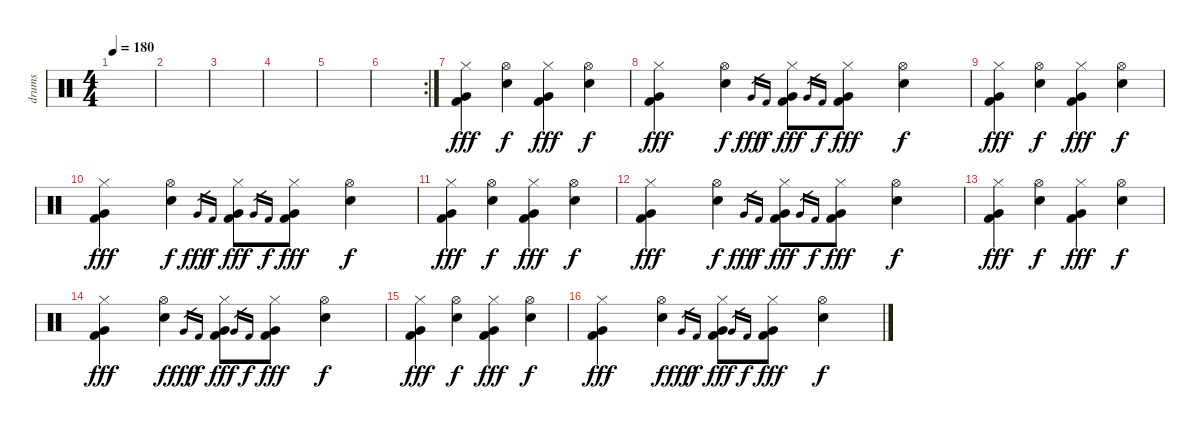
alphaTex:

\track ("drums" "drums") {instrument percussion}
\staff {score}
\articulation defaults
\ts (4 4)
\tempo 180
\clef neutral
\ks c
|
|
|
|
|
\rc 2
|
("Hi-Hat (closed)" "Very Low Tom (hit)" "Kick (hit) 2").4{dy fff} ("Hi-Hat (open)" "Electric Snare (hit)").4{dy f} ("Hi-Hat (closed)" "Very Low Tom (hit)" "Kick (hit) 2").4{dy fff} ("Hi-Hat (open)" "Electric Snare (hit)").4{dy f} |
("Hi-Hat (closed)" "Very Low Tom (hit)" "Kick (hit) 2").4{dy fff} ("Hi-Hat (open)" "Electric Snare (hit)").4{dy f} "Very Low Tom (hit)".16{gr dy fff} "Kick (hit) 2".16{gr dy f} ("Hi-Hat (closed)" "Very Low Tom (hit)" "Kick (hit) 2").8{dy fff} "Very Low Tom (hit)".16{gr} "Kick (hit) 2".16{gr dy f} ("Hi-Hat (closed)" "Very Low Tom (hit)" "Kick (hit) 2").8{dy fff} ("Hi-Hat (open)" "Electric Snare (hit)").4{dy f} |
("Hi-Hat (closed)" "Very Low Tom (hit)" "Kick (hit) 2").4{dy fff} ("Hi-Hat (open)" "Electric Snare (hit)").4{dy f} ("Hi-Hat (closed)" "Very Low Tom (hit)" "Kick (hit) 2").4{dy fff} ("Hi-Hat (open)" "Electric Snare (hit)").4{dy f} |
("Hi-Hat (closed)" "Very Low Tom (hit)" "Kick (hit) 2").4{dy fff} ("Hi-Hat (open)" "Electric Snare (hit)").4{dy f} "Very Low Tom (hit)".16{gr dy fff} "Kick (hit) 2".16{gr dy f} ("Hi-Hat (closed)" "Very Low Tom (hit)" "Kick (hit) 2").8{dy fff} "Very Low Tom (hit)".16{gr} "Kick (hit) 2".16{gr dy f} ("Hi-Hat (closed)" "Very Low Tom (hit)" "Kick (hit) 2").8{dy fff} ("Hi-Hat (open)" "Electric Snare (hit)").4{dy f} |
("Hi-Hat (closed)" "Very Low Tom (hit)" "Kick (hit) 2").4{dy fff} ("Hi-Hat (open)" "Electric Snare (hit)").4{dy f} ("Hi-Hat (closed)" "Very Low Tom (hit)" "Kick (hit) 2").4{dy fff} ("Hi-Hat (open)" "Electric Snare (hit)").4{dy f} |
("Hi-Hat (closed)" "Very Low Tom (hit)" "Kick (hit) 2").4{dy fff} ("Hi-Hat (open)" "Electric Snare (hit)").4{dy f} "Very Low Tom (hit)".16{gr dy fff} "Kick (hit) 2".16{gr dy f} ("Hi-Hat (closed)" "Very Low Tom (hit)" "Kick (hit) 2").8{dy fff} "Very Low Tom (hit)".16{gr} "Kick (hit) 2".16{gr dy f} ("Hi-Hat (closed)" "Very Low Tom (hit)" "Kick (hit) 2").8{dy fff} ("Hi-Hat (open)" "Electric Snare (hit)").4{dy f} |
("Hi-Hat (closed)" "Very Low Tom (hit)" "Kick (hit) 2").4{dy fff} ("Hi-Hat (open)" "Electric Snare (hit)").4{dy f} ("Hi-Hat (closed)" "Very Low Tom (hit)" "Kick (hit) 2").4{dy fff} ("Hi-Hat (open)" "Electric Snare (hit)").4{dy f} |
("Hi-Hat (closed)" "Very Low Tom (hit)" "Kick (hit) 2").4{dy fff} ("Hi-Hat (open)" "Electric Snare (hit)").4{dy f} "Very Low Tom (hit)".16{gr dy fff} "Kick (hit) 2".16{gr dy f} ("Hi-Hat (closed)" "Very Low Tom (hit)" "Kick (hit) 2").8{dy fff} "Very Low Tom (hit)".16{gr} "Kick (hit) 2".16{gr dy f} ("Hi-Hat (closed)" "Very Low Tom (hit)" "Kick (hit) 2").8{dy fff} ("Hi-Hat (open)" "Electric Snare (hit)").4{dy f} |
("Hi-Hat (closed)" "Very Low Tom (hit)" "Kick (hit) 2").4{dy fff} ("Hi-Hat (open)" "Electric Snare (hit)").4{dy f} ("Hi-Hat (closed)" "Very Low Tom (hit)" "Kick (hit) 2").4{dy fff} ("Hi-Hat (open)" "Electric Snare (hit)").4{dy f} |
("Hi-Hat (closed)" "Very Low Tom (hit)" "Kick (hit) 2").4{dy fff} ("Hi-Hat (open)" "Electric Snare (hit)").4{dy f} "Very Low Tom (hit)".16{gr dy fff} "Kick (hit) 2".16{gr dy f} ("Hi-Hat (closed)" "Very Low Tom (hit)" "Kick (hit) 2").8{dy fff} "Very Low Tom (hit)".16{gr} "Kick (hit) 2".16{gr dy f} ("Hi-Hat (closed)" "Very Low Tom (hit)" "Kick (hit) 2").8{dy fff} ("Hi-Hat (open)" "Electric Snare (hit)").4{dy f}
